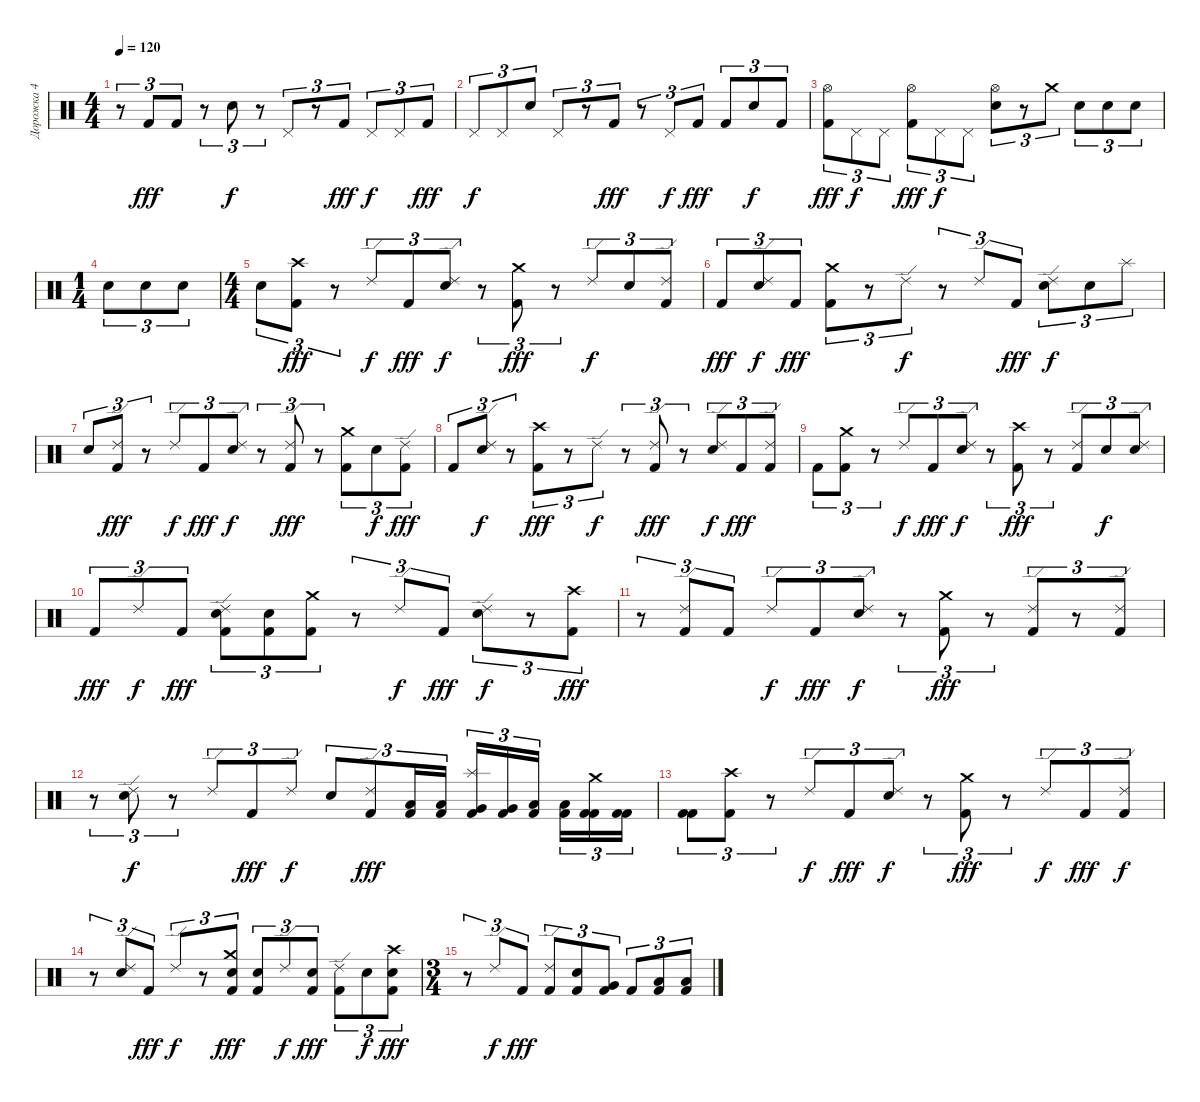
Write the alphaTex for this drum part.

\track ("Дорожка 4" "Дорожка 4") {instrument percussion}
\staff {score}
\articulation defaults
\ts (4 4)
\tempo 120
\clef neutral
\ks c
r.8{tu (3 2) dy f} "Kick (hit) 2".8{tu (3 2) dy fff} "Kick (hit) 2".8{tu (3 2)} r.8{tu (3 2)} "Snare (hit) 2".8{tu (3 2) dy f} r.8{tu (3 2)} "Pedal Hi-Hat (hit)".8{tu (3 2)} r.8{tu (3 2)} "Kick (hit) 2".8{tu (3 2) dy fff} "Pedal Hi-Hat (hit)".8{tu (3 2) dy f} "Pedal Hi-Hat (hit)".8{tu (3 2)} "Kick (hit) 2".8{tu (3 2) dy fff} |
"Pedal Hi-Hat (hit)".8{tu (3 2) dy f} "Pedal Hi-Hat (hit)".8{tu (3 2)} "Snare (hit) 2".8{tu (3 2)} "Pedal Hi-Hat (hit)".8{tu (3 2)} r.8{tu (3 2)} "Kick (hit) 2".8{tu (3 2) dy fff} r.8{tu (3 2)} "Pedal Hi-Hat (hit)".8{tu (3 2) dy f} "Kick (hit) 2".8{tu (3 2) dy fff} "Kick (hit) 2".8{tu (3 2)} "Snare (hit) 2".8{tu (3 2) dy f} "Kick (hit) 2".8{tu (3 2)} |
("Hi-Hat (open)" "Kick (hit) 2").8{tu (3 2) dy fff} "Pedal Hi-Hat (hit)".8{tu (3 2) dy f} "Pedal Hi-Hat (hit)".8{tu (3 2)} ("Hi-Hat (open)" "Kick (hit) 2").8{tu (3 2) dy fff} "Pedal Hi-Hat (hit)".8{tu (3 2) dy f} "Pedal Hi-Hat (hit)".8{tu (3 2)} ("Hi-Hat (open)" "Snare (hit) 2").8{tu (3 2)} r.8{tu (3 2)} "Crash medium (hit)".8{tu (3 2)} "Electric Snare (hit)".8{tu (3 2)} "Electric Snare (hit)".8{tu (3 2)} "Electric Snare (hit)".8{tu (3 2)} |
\ts (1 4)
"Electric Snare (hit)".8{tu (3 2)} "Electric Snare (hit)".8{tu (3 2)} "Electric Snare (hit)".8{tu (3 2)} |
\ts (4 4)
"Electric Snare (hit)".8{tu (3 2)} ("Crash high (hit)" "Kick (hit) 2").8{tu (3 2) dy fff} r.8{tu (3 2)} "Ride (edge) 2".8{tu (3 2) dy f} "Kick (hit) 2".8{tu (3 2) dy fff} ("Ride (edge) 2" "Electric Snare (hit)").8{tu (3 2) dy f} r.8{tu (3 2)} ("Crash medium (hit)" "Kick (hit) 2").8{tu (3 2) dy fff} r.8{tu (3 2)} "Ride (edge) 2".8{tu (3 2) dy f} "Electric Snare (hit)".8{tu (3 2)} ("Ride (edge) 2" "Kick (hit) 2").8{tu (3 2)} |
"Kick (hit) 2".8{tu (3 2) dy fff} ("Ride (edge) 2" "Electric Snare (hit)").8{tu (3 2) dy f} "Kick (hit) 2".8{tu (3 2) dy fff} ("Crash medium (hit)" "Kick (hit) 2").8{tu (3 2)} r.8{tu (3 2)} "Ride (edge) 2".8{tu (3 2) dy f} r.8{tu (3 2)} "Ride (edge) 2".8{tu (3 2)} "Kick (hit) 2".8{tu (3 2) dy fff} ("Ride (edge) 2" "Electric Snare (hit)").8{tu (3 2) dy f} "Electric Snare (hit)".8{tu (3 2)} "Splash (hit)".8{tu (3 2)} |
"Electric Snare (hit)".8{tu (3 2)} ("Ride (edge) 2" "Kick (hit) 2").8{tu (3 2) dy fff} r.8{tu (3 2)} "Ride (edge) 2".8{tu (3 2) dy f} "Kick (hit) 2".8{tu (3 2) dy fff} ("Ride (edge) 2" "Electric Snare (hit)").8{tu (3 2) dy f} r.8{tu (3 2)} ("Ride (edge) 2" "Kick (hit) 2").8{tu (3 2) dy fff} r.8{tu (3 2)} ("Crash medium (hit)" "Kick (hit) 2").8{tu (3 2)} "Electric Snare (hit)".8{tu (3 2) dy f} ("Ride (edge) 2" "Kick (hit) 2").8{tu (3 2) dy fff} |
"Kick (hit) 2".8{tu (3 2)} ("Ride (edge) 2" "Electric Snare (hit)").8{tu (3 2) dy f} r.8{tu (3 2)} ("Crash high (hit)" "Kick (hit) 2").8{tu (3 2) dy fff} r.8{tu (3 2)} "Ride (edge) 2".8{tu (3 2) dy f} r.8{tu (3 2)} ("Ride (edge) 2" "Kick (hit) 2").8{tu (3 2) dy fff} r.8{tu (3 2)} ("Ride (edge) 2" "Electric Snare (hit)").8{tu (3 2) dy f} "Kick (hit) 2".8{tu (3 2) dy fff} ("Ride (edge) 2" "Kick (hit) 2").8{tu (3 2)} |
"Kick (hit) 2".8{tu (3 2)} ("Crash medium (hit)" "Kick (hit) 2").8{tu (3 2)} r.8{tu (3 2)} "Ride (edge) 2".8{tu (3 2) dy f} "Kick (hit) 2".8{tu (3 2) dy fff} ("Ride (edge) 2" "Electric Snare (hit)").8{tu (3 2) dy f} r.8{tu (3 2)} ("Crash high (hit)" "Kick (hit) 2").8{tu (3 2) dy fff} r.8{tu (3 2)} ("Ride (edge) 2" "Kick (hit) 2").8{tu (3 2)} "Electric Snare (hit)".8{tu (3 2) dy f} ("Ride (edge) 2" "Electric Snare (hit)").8{tu (3 2)} |
"Kick (hit) 2".8{tu (3 2) dy fff} "Ride (edge) 2".8{tu (3 2) dy f} "Kick (hit) 2".8{tu (3 2) dy fff} ("Ride (edge) 2" "Electric Snare (hit)" "Kick (hit) 2").8{tu (3 2)} ("Electric Snare (hit)" "Kick (hit) 2").8{tu (3 2)} ("Crash medium (hit)" "Kick (hit) 2").8{tu (3 2)} r.8{tu (3 2)} "Ride (edge) 2".8{tu (3 2) dy f} "Kick (hit) 2".8{tu (3 2) dy fff} ("Ride (edge) 2" "Electric Snare (hit)").8{tu (3 2) dy f} r.8{tu (3 2)} ("Crash high (hit)" "Kick (hit) 2").8{tu (3 2) dy fff} |
r.8{tu (3 2)} ("Ride (edge) 2" "Kick (hit) 2").8{tu (3 2)} "Kick (hit) 2".8{tu (3 2)} "Ride (edge) 2".8{tu (3 2) dy f} "Kick (hit) 2".8{tu (3 2) dy fff} ("Ride (edge) 2" "Electric Snare (hit)").8{tu (3 2) dy f} r.8{tu (3 2)} ("Crash medium (hit)" "Kick (hit) 2").8{tu (3 2) dy fff} r.8{tu (3 2)} ("Ride (edge) 2" "Kick (hit) 2").8{tu (3 2)} r.8{tu (3 2)} ("Ride (edge) 2" "Kick (hit) 2").8{tu (3 2)} |
r.8{tu (3 2)} ("Ride (edge) 2" "Electric Snare (hit)").8{tu (3 2) dy f} r.8{tu (3 2)} "Ride (edge) 2".8{tu (3 2)} "Kick (hit) 2".8{tu (3 2) dy fff} "Ride (edge) 2".8{tu (3 2) dy f} "Electric Snare (hit)".8{tu (3 2)} ("Ride (edge) 2" "Kick (hit) 2").8{tu (3 2) dy fff} ("Low Tom (hit)" "Kick (hit) 2").16{tu (3 2)} ("Low Tom (hit)" "Kick (hit) 2").16{tu (3 2)} ("Splash (hit)" "Very Low Tom (hit)" "Kick (hit) 2").16{tu (3 2)} ("Very Low Tom (hit)" "Kick (hit) 2").16{tu (3 2)} ("Low Floor Tom (hit)" "Kick (hit) 2").16{tu (3 2) beam splitsecondary} ("Low Floor Tom (hit)" "Kick (hit) 2").16{tu (3 2)} ("Crash medium (hit)" "Kick (hit) 2" "Kick (hit) 2").16{tu (3 2)} ("Kick (hit) 2" "Kick (hit) 2").16{tu (3 2)} |
("Kick (hit) 2" "Kick (hit) 2").8{tu (3 2)} ("Crash high (hit)" "Kick (hit) 2").8{tu (3 2)} r.8{tu (3 2)} "Ride (edge) 2".8{tu (3 2) dy f} "Kick (hit) 2".8{tu (3 2) dy fff} ("Ride (edge) 2" "Electric Snare (hit)").8{tu (3 2) dy f} r.8{tu (3 2)} ("Crash medium (hit)" "Kick (hit) 2").8{tu (3 2) dy fff} r.8{tu (3 2)} "Ride (edge) 2".8{tu (3 2) dy f} "Kick (hit) 2".8{tu (3 2) dy fff} ("Ride (edge) 2" "Kick (hit) 2").8{tu (3 2) dy f} |
r.8{tu (3 2)} ("Ride (edge) 2" "Electric Snare (hit)").8{tu (3 2)} "Kick (hit) 2".8{tu (3 2) dy fff} "Ride (edge) 2".8{tu (3 2) dy f} r.8{tu (3 2)} ("Crash medium (hit)" "Electric Snare (hit)" "Kick (hit) 2").8{tu (3 2) dy fff} ("Electric Snare (hit)" "Kick (hit) 2").8{tu (3 2)} "Ride (edge) 2".8{tu (3 2) dy f} ("Electric Snare (hit)" "Kick (hit) 2").8{tu (3 2) dy fff} ("Ride (edge) 2" "Kick (hit) 2").8{tu (3 2)} "Electric Snare (hit)".8{tu (3 2) dy f} ("Crash high (hit)" "Electric Snare (hit)" "Kick (hit) 2").8{tu (3 2) dy fff} |
\ts (3 4)
r.8{tu (3 2)} "Ride (edge) 2".8{tu (3 2) dy f} "Kick (hit) 2".8{tu (3 2) dy fff} ("Ride (edge) 2" "Kick (hit) 2").8{tu (3 2)} ("Electric Snare (hit)" "Kick (hit) 2").8{tu (3 2)} ("Very Low Tom (hit)" "Kick (hit) 2").8{tu (3 2)} "Kick (hit) 2".8{tu (3 2)} ("Low Tom (hit)" "Kick (hit) 2").8{tu (3 2)} ("Low Tom (hit)" "Kick (hit) 2").8{tu (3 2)}
